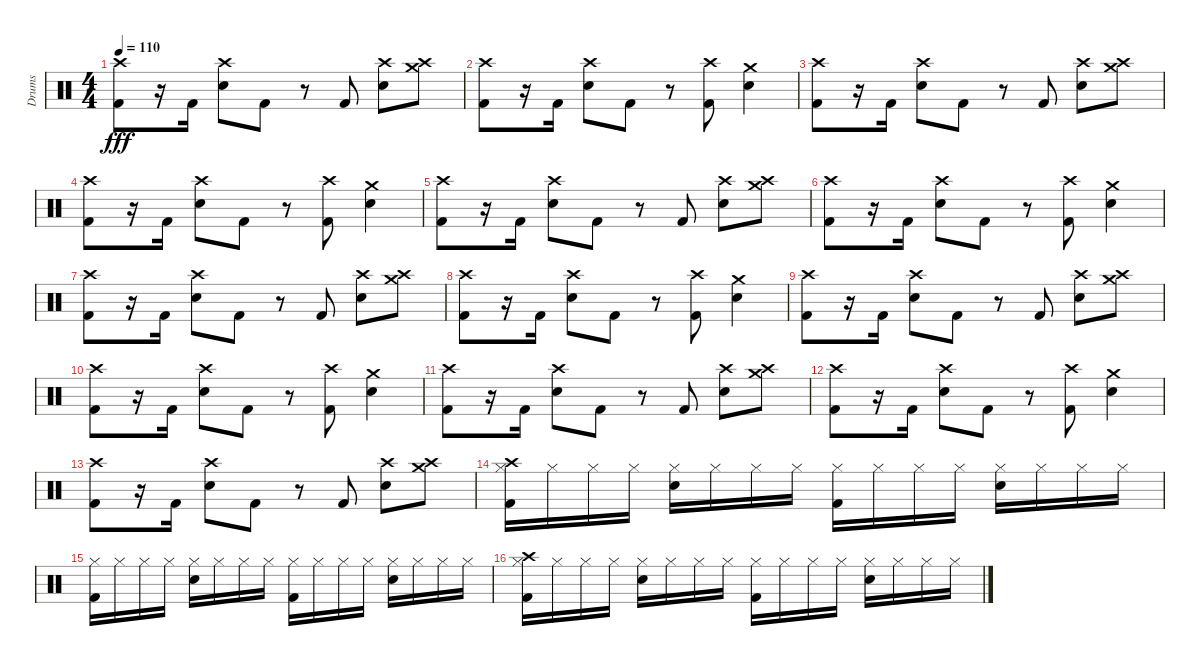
\track ("Drums" "Drums") {instrument percussion}
\staff {score}
\articulation defaults
\ts (4 4)
\tempo 110
\clef neutral
\ks c
("Crash high (hit)" "Kick (hit) 2").8{dy fff} r.16 "Kick (hit) 2".16 ("Crash high (hit)" "Electric Snare (hit)").8 "Kick (hit) 2".8 r.8 "Kick (hit) 2".8 ("Crash high (hit)" "Electric Snare (hit)").8 ("Crash high (hit)" "Crash medium (hit)").8 |
("Crash high (hit)" "Kick (hit) 2").8 r.16 "Kick (hit) 2".16 ("Crash high (hit)" "Electric Snare (hit)").8 "Kick (hit) 2".8 r.8 ("Crash high (hit)" "Kick (hit) 2").8 ("Crash medium (hit)" "Electric Snare (hit)").4 |
("Crash high (hit)" "Kick (hit) 2").8 r.16 "Kick (hit) 2".16 ("Crash high (hit)" "Electric Snare (hit)").8 "Kick (hit) 2".8 r.8 "Kick (hit) 2".8 ("Crash high (hit)" "Electric Snare (hit)").8 ("Crash high (hit)" "Crash medium (hit)").8 |
("Crash high (hit)" "Kick (hit) 2").8 r.16 "Kick (hit) 2".16 ("Crash high (hit)" "Electric Snare (hit)").8 "Kick (hit) 2".8 r.8 ("Crash high (hit)" "Kick (hit) 2").8 ("Crash medium (hit)" "Electric Snare (hit)").4 |
("Crash high (hit)" "Kick (hit) 2").8 r.16 "Kick (hit) 2".16 ("Crash high (hit)" "Electric Snare (hit)").8 "Kick (hit) 2".8 r.8 "Kick (hit) 2".8 ("Crash high (hit)" "Electric Snare (hit)").8 ("Crash high (hit)" "Crash medium (hit)").8 |
("Crash high (hit)" "Kick (hit) 2").8 r.16 "Kick (hit) 2".16 ("Crash high (hit)" "Electric Snare (hit)").8 "Kick (hit) 2".8 r.8 ("Crash high (hit)" "Kick (hit) 2").8 ("Crash medium (hit)" "Electric Snare (hit)").4 |
("Crash high (hit)" "Kick (hit) 2").8 r.16 "Kick (hit) 2".16 ("Crash high (hit)" "Electric Snare (hit)").8 "Kick (hit) 2".8 r.8 "Kick (hit) 2".8 ("Crash high (hit)" "Electric Snare (hit)").8 ("Crash high (hit)" "Crash medium (hit)").8 |
("Crash high (hit)" "Kick (hit) 2").8 r.16 "Kick (hit) 2".16 ("Crash high (hit)" "Electric Snare (hit)").8 "Kick (hit) 2".8 r.8 ("Crash high (hit)" "Kick (hit) 2").8 ("Crash medium (hit)" "Electric Snare (hit)").4 |
("Crash high (hit)" "Kick (hit) 2").8 r.16 "Kick (hit) 2".16 ("Crash high (hit)" "Electric Snare (hit)").8 "Kick (hit) 2".8 r.8 "Kick (hit) 2".8 ("Crash high (hit)" "Electric Snare (hit)").8 ("Crash high (hit)" "Crash medium (hit)").8 |
("Crash high (hit)" "Kick (hit) 2").8 r.16 "Kick (hit) 2".16 ("Crash high (hit)" "Electric Snare (hit)").8 "Kick (hit) 2".8 r.8 ("Crash high (hit)" "Kick (hit) 2").8 ("Crash medium (hit)" "Electric Snare (hit)").4 |
("Crash high (hit)" "Kick (hit) 2").8 r.16 "Kick (hit) 2".16 ("Crash high (hit)" "Electric Snare (hit)").8 "Kick (hit) 2".8 r.8 "Kick (hit) 2".8 ("Crash high (hit)" "Electric Snare (hit)").8 ("Crash high (hit)" "Crash medium (hit)").8 |
("Crash high (hit)" "Kick (hit) 2").8 r.16 "Kick (hit) 2".16 ("Crash high (hit)" "Electric Snare (hit)").8 "Kick (hit) 2".8 r.8 ("Crash high (hit)" "Kick (hit) 2").8 ("Crash medium (hit)" "Electric Snare (hit)").4 |
("Crash high (hit)" "Kick (hit) 2").8 r.16 "Kick (hit) 2".16 ("Crash high (hit)" "Electric Snare (hit)").8 "Kick (hit) 2".8 r.8 "Kick (hit) 2".8 ("Crash high (hit)" "Electric Snare (hit)").8 ("Crash high (hit)" "Crash medium (hit)").8 |
("Crash high (hit)" "Hi-Hat (closed)" "Kick (hit) 2").16 "Hi-Hat (closed)".16 "Hi-Hat (closed)".16 "Hi-Hat (closed)".16 ("Hi-Hat (closed)" "Electric Snare (hit)").16 "Hi-Hat (closed)".16 "Hi-Hat (closed)".16 "Hi-Hat (closed)".16 ("Hi-Hat (closed)" "Kick (hit) 2").16 "Hi-Hat (closed)".16 "Hi-Hat (closed)".16 "Hi-Hat (closed)".16 ("Hi-Hat (closed)" "Electric Snare (hit)").16 "Hi-Hat (closed)".16 "Hi-Hat (closed)".16 "Hi-Hat (closed)".16 |
("Hi-Hat (closed)" "Kick (hit) 2").16 "Hi-Hat (closed)".16 "Hi-Hat (closed)".16 "Hi-Hat (closed)".16 ("Hi-Hat (closed)" "Electric Snare (hit)").16 "Hi-Hat (closed)".16 "Hi-Hat (closed)".16 "Hi-Hat (closed)".16 ("Hi-Hat (closed)" "Kick (hit) 2").16 "Hi-Hat (closed)".16 "Hi-Hat (closed)".16 "Hi-Hat (closed)".16 ("Hi-Hat (closed)" "Electric Snare (hit)").16 "Hi-Hat (closed)".16 "Hi-Hat (closed)".16 "Hi-Hat (closed)".16 |
("Crash high (hit)" "Hi-Hat (closed)" "Kick (hit) 2").16 "Hi-Hat (closed)".16 "Hi-Hat (closed)".16 "Hi-Hat (closed)".16 ("Hi-Hat (closed)" "Electric Snare (hit)").16 "Hi-Hat (closed)".16 "Hi-Hat (closed)".16 "Hi-Hat (closed)".16 ("Hi-Hat (closed)" "Kick (hit) 2").16 "Hi-Hat (closed)".16 "Hi-Hat (closed)".16 "Hi-Hat (closed)".16 ("Hi-Hat (closed)" "Electric Snare (hit)").16 "Hi-Hat (closed)".16 "Hi-Hat (closed)".16 "Hi-Hat (closed)".16
